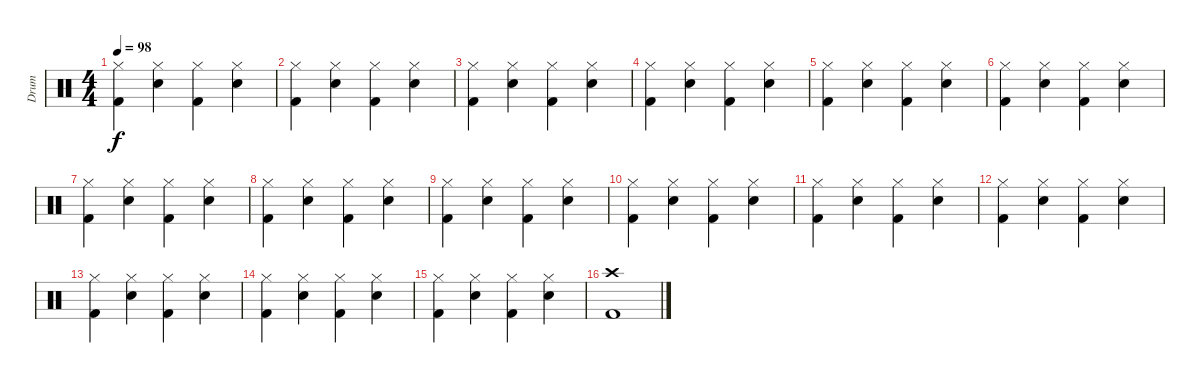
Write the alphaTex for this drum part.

\track ("Drum" "Drum") {instrument percussion}
\staff {score}
\articulation defaults
\ts (4 4)
\tempo 98
\clef neutral
\ks c
("Hi-Hat (closed)" "Kick (hit) 2").4{dy f} ("Hi-Hat (closed)" "Snare (hit) 2").4 ("Hi-Hat (closed)" "Kick (hit) 2").4 ("Hi-Hat (closed)" "Snare (hit) 2").4 |
("Hi-Hat (closed)" "Kick (hit) 2").4 ("Hi-Hat (closed)" "Snare (hit) 2").4 ("Hi-Hat (closed)" "Kick (hit) 2").4 ("Hi-Hat (closed)" "Snare (hit) 2").4 |
("Hi-Hat (closed)" "Kick (hit) 2").4 ("Hi-Hat (closed)" "Snare (hit) 2").4 ("Hi-Hat (closed)" "Kick (hit) 2").4 ("Hi-Hat (closed)" "Snare (hit) 2").4 |
("Hi-Hat (closed)" "Kick (hit) 2").4 ("Hi-Hat (closed)" "Snare (hit) 2").4 ("Hi-Hat (closed)" "Kick (hit) 2").4 ("Hi-Hat (closed)" "Snare (hit) 2").4 |
("Hi-Hat (closed)" "Kick (hit) 2").4 ("Hi-Hat (closed)" "Snare (hit) 2").4 ("Hi-Hat (closed)" "Kick (hit) 2").4 ("Hi-Hat (closed)" "Snare (hit) 2").4 |
("Hi-Hat (closed)" "Kick (hit) 2").4 ("Hi-Hat (closed)" "Snare (hit) 2").4 ("Hi-Hat (closed)" "Kick (hit) 2").4 ("Hi-Hat (closed)" "Snare (hit) 2").4 |
("Hi-Hat (closed)" "Kick (hit) 2").4 ("Hi-Hat (closed)" "Snare (hit) 2").4 ("Hi-Hat (closed)" "Kick (hit) 2").4 ("Hi-Hat (closed)" "Snare (hit) 2").4 |
("Hi-Hat (closed)" "Kick (hit) 2").4 ("Hi-Hat (closed)" "Snare (hit) 2").4 ("Hi-Hat (closed)" "Kick (hit) 2").4 ("Hi-Hat (closed)" "Snare (hit) 2").4 |
("Hi-Hat (closed)" "Kick (hit) 2").4 ("Hi-Hat (closed)" "Snare (hit) 2").4 ("Hi-Hat (closed)" "Kick (hit) 2").4 ("Hi-Hat (closed)" "Snare (hit) 2").4 |
("Hi-Hat (closed)" "Kick (hit) 2").4 ("Hi-Hat (closed)" "Snare (hit) 2").4 ("Hi-Hat (closed)" "Kick (hit) 2").4 ("Hi-Hat (closed)" "Snare (hit) 2").4 |
("Hi-Hat (closed)" "Kick (hit) 2").4 ("Hi-Hat (closed)" "Snare (hit) 2").4 ("Hi-Hat (closed)" "Kick (hit) 2").4 ("Hi-Hat (closed)" "Snare (hit) 2").4 |
("Hi-Hat (closed)" "Kick (hit) 2").4 ("Hi-Hat (closed)" "Snare (hit) 2").4 ("Hi-Hat (closed)" "Kick (hit) 2").4 ("Hi-Hat (closed)" "Snare (hit) 2").4 |
("Hi-Hat (closed)" "Kick (hit) 2").4 ("Hi-Hat (closed)" "Snare (hit) 2").4 ("Hi-Hat (closed)" "Kick (hit) 2").4 ("Hi-Hat (closed)" "Snare (hit) 2").4 |
("Hi-Hat (closed)" "Kick (hit) 2").4 ("Hi-Hat (closed)" "Snare (hit) 2").4 ("Hi-Hat (closed)" "Kick (hit) 2").4 ("Hi-Hat (closed)" "Snare (hit) 2").4 |
("Hi-Hat (closed)" "Kick (hit) 2").4 ("Hi-Hat (closed)" "Snare (hit) 2").4 ("Hi-Hat (closed)" "Kick (hit) 2").4 ("Hi-Hat (closed)" "Snare (hit) 2").4 |
("Crash high (hit)" "Kick (hit) 2").1
